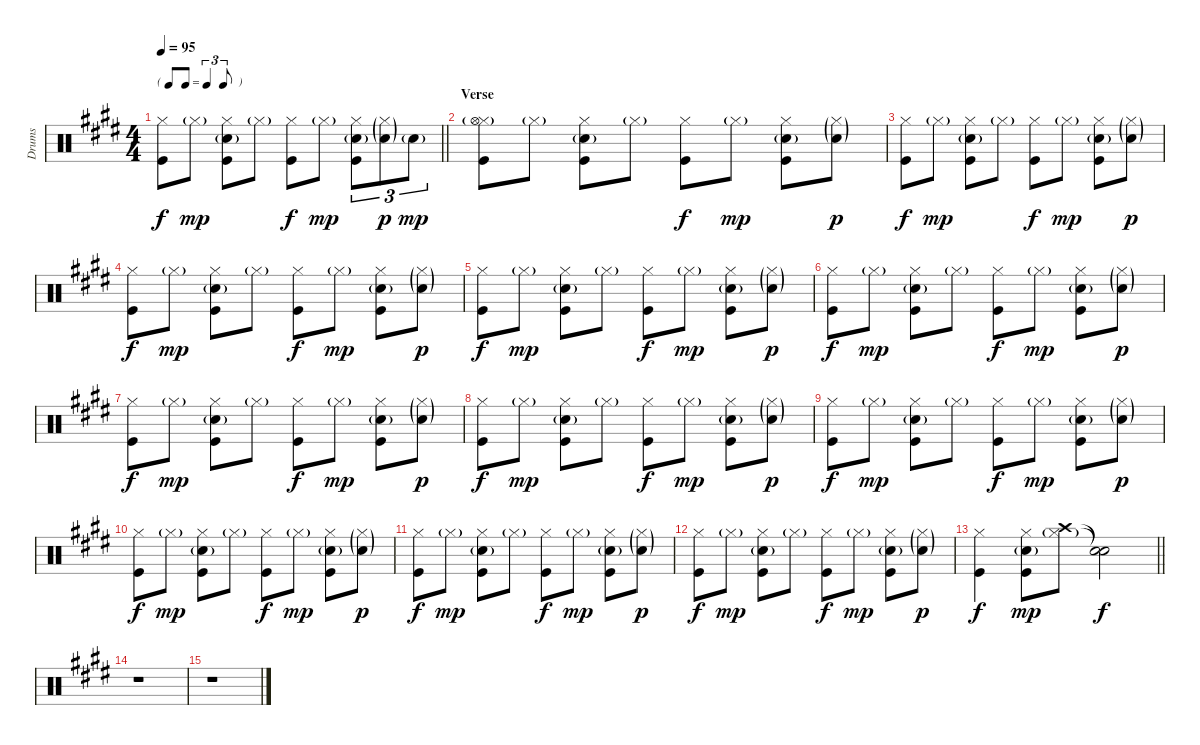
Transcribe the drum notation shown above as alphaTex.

\track ("Drums" "Drums") {instrument percussion}
\staff {score}
\articulation defaults
\ts (4 4)
\tf triplet8th
\tempo 95
\clef neutral
\barLineRight lightlight
\ks e
("Hi-Hat (closed)" "Kick (hit)").8{dy f} "Hi-Hat (closed)"{g}.8{dy mp} ("Hi-Hat (closed)" "Snare (hit) 2"{g} "Kick (hit)").8 "Hi-Hat (closed)"{g}.8 ("Hi-Hat (closed)" "Kick (hit)").8{dy f} "Hi-Hat (closed)"{g}.8{dy mp} ("Hi-Hat (closed)" "Snare (hit) 2"{g} "Kick (hit)").8{tu (3 2)} ("Hi-Hat (closed)"{g} "Snare (hit) 2"{g}).8{tu (3 2) dy p} "Snare (hit) 2"{g}.8{tu (3 2) dy mp} |
\section ("" "Verse")
("Hi-Hat (closed)" "Hi-Hat (open)"{g} "Kick (hit)").8 "Hi-Hat (closed)"{g}.8 ("Hi-Hat (closed)" "Snare (hit) 2"{g} "Kick (hit)").8 "Hi-Hat (closed)"{g}.8 ("Hi-Hat (closed)" "Kick (hit)").8{dy f} "Hi-Hat (closed)"{g}.8{dy mp} ("Hi-Hat (closed)" "Snare (hit) 2"{g} "Kick (hit)").8 ("Hi-Hat (closed)"{g} "Snare (hit) 2"{g}).8{dy p} |
("Hi-Hat (closed)" "Kick (hit)").8{dy f} "Hi-Hat (closed)"{g}.8{dy mp} ("Hi-Hat (closed)" "Snare (hit) 2"{g} "Kick (hit)").8 "Hi-Hat (closed)"{g}.8 ("Hi-Hat (closed)" "Kick (hit)").8{dy f} "Hi-Hat (closed)"{g}.8{dy mp} ("Hi-Hat (closed)" "Snare (hit) 2"{g} "Kick (hit)").8 ("Hi-Hat (closed)"{g} "Snare (hit) 2"{g}).8{dy p} |
("Hi-Hat (closed)" "Kick (hit)").8{dy f} "Hi-Hat (closed)"{g}.8{dy mp} ("Hi-Hat (closed)" "Snare (hit) 2"{g} "Kick (hit)").8 "Hi-Hat (closed)"{g}.8 ("Hi-Hat (closed)" "Kick (hit)").8{dy f} "Hi-Hat (closed)"{g}.8{dy mp} ("Hi-Hat (closed)" "Snare (hit) 2"{g} "Kick (hit)").8 ("Hi-Hat (closed)"{g} "Snare (hit) 2"{g}).8{dy p} |
("Hi-Hat (closed)" "Kick (hit)").8{dy f} "Hi-Hat (closed)"{g}.8{dy mp} ("Hi-Hat (closed)" "Snare (hit) 2"{g} "Kick (hit)").8 "Hi-Hat (closed)"{g}.8 ("Hi-Hat (closed)" "Kick (hit)").8{dy f} "Hi-Hat (closed)"{g}.8{dy mp} ("Hi-Hat (closed)" "Snare (hit) 2"{g} "Kick (hit)").8 ("Hi-Hat (closed)"{g} "Snare (hit) 2"{g}).8{dy p} |
("Hi-Hat (closed)" "Kick (hit)").8{dy f} "Hi-Hat (closed)"{g}.8{dy mp} ("Hi-Hat (closed)" "Snare (hit) 2"{g} "Kick (hit)").8 "Hi-Hat (closed)"{g}.8 ("Hi-Hat (closed)" "Kick (hit)").8{dy f} "Hi-Hat (closed)"{g}.8{dy mp} ("Hi-Hat (closed)" "Snare (hit) 2"{g} "Kick (hit)").8 ("Hi-Hat (closed)"{g} "Snare (hit) 2"{g}).8{dy p} |
("Hi-Hat (closed)" "Kick (hit)").8{dy f} "Hi-Hat (closed)"{g}.8{dy mp} ("Hi-Hat (closed)" "Snare (hit) 2"{g} "Kick (hit)").8 "Hi-Hat (closed)"{g}.8 ("Hi-Hat (closed)" "Kick (hit)").8{dy f} "Hi-Hat (closed)"{g}.8{dy mp} ("Hi-Hat (closed)" "Snare (hit) 2"{g} "Kick (hit)").8 ("Hi-Hat (closed)"{g} "Snare (hit) 2"{g}).8{dy p} |
("Hi-Hat (closed)" "Kick (hit)").8{dy f} "Hi-Hat (closed)"{g}.8{dy mp} ("Hi-Hat (closed)" "Snare (hit) 2"{g} "Kick (hit)").8 "Hi-Hat (closed)"{g}.8 ("Hi-Hat (closed)" "Kick (hit)").8{dy f} "Hi-Hat (closed)"{g}.8{dy mp} ("Hi-Hat (closed)" "Snare (hit) 2"{g} "Kick (hit)").8 ("Hi-Hat (closed)"{g} "Snare (hit) 2"{g}).8{dy p} |
("Hi-Hat (closed)" "Kick (hit)").8{dy f} "Hi-Hat (closed)"{g}.8{dy mp} ("Hi-Hat (closed)" "Snare (hit) 2"{g} "Kick (hit)").8 "Hi-Hat (closed)"{g}.8 ("Hi-Hat (closed)" "Kick (hit)").8{dy f} "Hi-Hat (closed)"{g}.8{dy mp} ("Hi-Hat (closed)" "Snare (hit) 2"{g} "Kick (hit)").8 ("Hi-Hat (closed)"{g} "Snare (hit) 2"{g}).8{dy p} |
("Hi-Hat (closed)" "Kick (hit)").8{dy f} "Hi-Hat (closed)"{g}.8{dy mp} ("Hi-Hat (closed)" "Snare (hit) 2"{g} "Kick (hit)").8 "Hi-Hat (closed)"{g}.8 ("Hi-Hat (closed)" "Kick (hit)").8{dy f} "Hi-Hat (closed)"{g}.8{dy mp} ("Hi-Hat (closed)" "Snare (hit) 2"{g} "Kick (hit)").8 ("Hi-Hat (closed)"{g} "Snare (hit) 2"{g}).8{dy p} |
("Hi-Hat (closed)" "Kick (hit)").8{dy f} "Hi-Hat (closed)"{g}.8{dy mp} ("Hi-Hat (closed)" "Snare (hit) 2"{g} "Kick (hit)").8 "Hi-Hat (closed)"{g}.8 ("Hi-Hat (closed)" "Kick (hit)").8{dy f} "Hi-Hat (closed)"{g}.8{dy mp} ("Hi-Hat (closed)" "Snare (hit) 2"{g} "Kick (hit)").8 ("Hi-Hat (closed)"{g} "Snare (hit) 2"{g}).8{dy p} |
("Hi-Hat (closed)" "Kick (hit)").8{dy f} "Hi-Hat (closed)"{g}.8{dy mp} ("Hi-Hat (closed)" "Snare (hit) 2"{g} "Kick (hit)").8 "Hi-Hat (closed)"{g}.8 ("Hi-Hat (closed)" "Kick (hit)").8{dy f} "Hi-Hat (closed)"{g}.8{dy mp} ("Hi-Hat (closed)" "Snare (hit) 2"{g} "Kick (hit)").8 ("Hi-Hat (closed)"{g} "Snare (hit) 2"{g}).8{dy p} |
\barLineRight lightlight
("Hi-Hat (closed)" "Kick (hit)").4{dy f} ("Hi-Hat (closed)" "Snare (hit) 2"{g} "Kick (hit)").8{dy mp} ("Hi-Hat (closed)"{g} "Crash high (hit)").8 ("Snare (hit)"{t} "Snare (hit)"{t}).2{dy f} |
r.1 |
r.1
